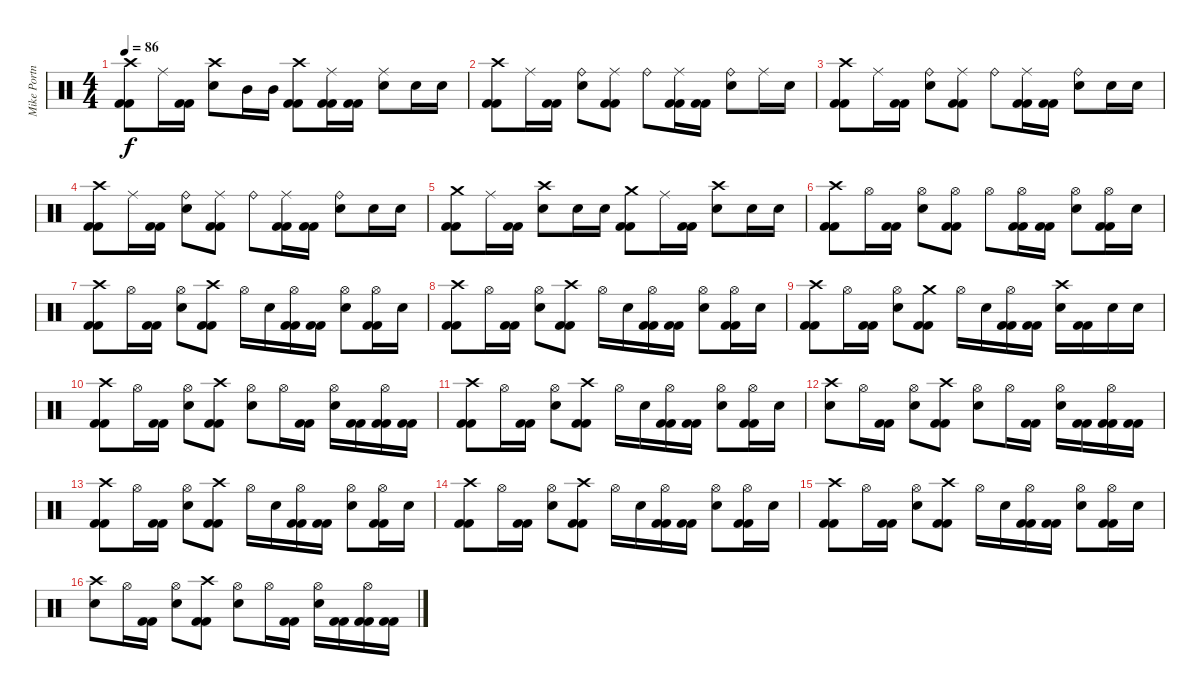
\track ("Mike Portnoy - Drum" "Mike Portn") {instrument percussion}
\staff {score}
\articulation defaults
\ts (4 4)
\tempo 86
\clef neutral
\ks c
("Crash high (hit)" "Kick (hit) 2" "Kick (hit) 2").8{dy f} "Ride (middle)".16 ("Kick (hit) 2" "Kick (hit) 2").16 ("Crash high (hit)" "Snare (hit) 2").8 "Mid Tom (hit)".16 "Mid Tom (hit)".16 ("Crash high (hit)" "Kick (hit) 2" "Kick (hit) 2").8 ("Ride (middle)" "Kick (hit) 2" "Kick (hit) 2").16 ("Kick (hit) 2" "Kick (hit) 2").16 ("Ride (middle)" "Snare (hit) 2").8 "Snare (hit) 2".16 "Snare (hit) 2".16 |
("Crash high (hit)" "Kick (hit) 2" "Kick (hit) 2").8 "Ride (middle)".16 ("Kick (hit) 2" "Kick (hit) 2").16 ("Ride (bell)" "Snare (hit) 2").8 ("Ride (middle)" "Kick (hit) 2" "Kick (hit) 2").8 "Ride (bell)".8 ("Ride (middle)" "Kick (hit) 2" "Kick (hit) 2").16 ("Kick (hit) 2" "Kick (hit) 2").16 ("Ride (bell)" "Snare (hit) 2").8 "Ride (middle)".16 "Snare (hit) 2".16 |
("Crash high (hit)" "Kick (hit) 2" "Kick (hit) 2").8 "Ride (middle)".16 ("Kick (hit) 2" "Kick (hit) 2").16 ("Ride (bell)" "Snare (hit) 2").8 ("Ride (middle)" "Kick (hit) 2" "Kick (hit) 2").8 "Ride (bell)".8 ("Ride (middle)" "Kick (hit) 2" "Kick (hit) 2").16 ("Kick (hit) 2" "Kick (hit) 2").16 ("Ride (bell)" "Snare (hit) 2").8 "Snare (hit) 2".16 "Snare (hit) 2".16 |
("Crash high (hit)" "Kick (hit) 2" "Kick (hit) 2").8 "Ride (middle)".16 ("Kick (hit) 2" "Kick (hit) 2").16 ("Ride (bell)" "Snare (hit) 2").8 ("Ride (middle)" "Kick (hit) 2" "Kick (hit) 2").8 "Ride (bell)".8 ("Ride (middle)" "Kick (hit) 2" "Kick (hit) 2").16 ("Kick (hit) 2" "Kick (hit) 2").16 ("Ride (bell)" "Snare (hit) 2").8 "Snare (hit) 2".16 "Snare (hit) 2".16 |
("Crash medium (hit)" "Kick (hit) 2" "Kick (hit) 2").8 "Ride (middle)".16 ("Kick (hit) 2" "Kick (hit) 2").16 ("Crash high (hit)" "Snare (hit) 2").8 "Snare (hit) 2".16 "Snare (hit) 2".16 ("Crash medium (hit)" "Kick (hit) 2" "Kick (hit) 2").8 "Ride (middle)".16 ("Kick (hit) 2" "Kick (hit) 2").16 ("Crash high (hit)" "Snare (hit) 2").8 "Snare (hit) 2".16 "Snare (hit) 2".16 |
("Crash high (hit)" "Kick (hit) 2" "Kick (hit) 2").8 "Hi-Hat (open)".16 ("Kick (hit) 2" "Kick (hit) 2").16 ("Hi-Hat (open)" "Snare (hit) 2").8 ("Hi-Hat (open)" "Kick (hit) 2" "Kick (hit) 2").8 "Hi-Hat (open)".8 ("Hi-Hat (open)" "Kick (hit) 2" "Kick (hit) 2").16 ("Kick (hit) 2" "Kick (hit) 2").16 ("Hi-Hat (open)" "Snare (hit) 2").8 ("Hi-Hat (open)" "Kick (hit) 2" "Kick (hit) 2").16 "Snare (hit) 2".16 |
("Crash high (hit)" "Kick (hit) 2" "Kick (hit) 2").8 "Hi-Hat (open)".16 ("Kick (hit) 2" "Kick (hit) 2").16 ("Hi-Hat (open)" "Snare (hit) 2").8 ("Crash high (hit)" "Kick (hit) 2" "Kick (hit) 2").8 "Hi-Hat (open)".16 "Snare (hit) 2".16 ("Hi-Hat (open)" "Kick (hit) 2" "Kick (hit) 2").16 ("Kick (hit) 2" "Kick (hit) 2").16 ("Hi-Hat (open)" "Snare (hit) 2").8 ("Hi-Hat (open)" "Kick (hit) 2" "Kick (hit) 2").16 "Snare (hit) 2".16 |
("Crash high (hit)" "Kick (hit) 2" "Kick (hit) 2").8 "Hi-Hat (open)".16 ("Kick (hit) 2" "Kick (hit) 2").16 ("Hi-Hat (open)" "Snare (hit) 2").8 ("Crash high (hit)" "Kick (hit) 2" "Kick (hit) 2").8 "Hi-Hat (open)".16 "Snare (hit) 2".16 ("Hi-Hat (open)" "Kick (hit) 2" "Kick (hit) 2").16 ("Kick (hit) 2" "Kick (hit) 2").16 ("Hi-Hat (open)" "Snare (hit) 2").8 ("Hi-Hat (open)" "Kick (hit) 2" "Kick (hit) 2").16 "Snare (hit) 2".16 |
("Crash high (hit)" "Kick (hit) 2" "Kick (hit) 2").8 "Hi-Hat (open)".16 ("Kick (hit) 2" "Kick (hit) 2").16 ("Hi-Hat (open)" "Snare (hit) 2").8 ("Crash medium (hit)" "Kick (hit) 2" "Kick (hit) 2").8 "Hi-Hat (open)".16 "Snare (hit) 2".16 ("Hi-Hat (open)" "Kick (hit) 2" "Kick (hit) 2").16 ("Kick (hit) 2" "Kick (hit) 2").16 ("Crash high (hit)" "Snare (hit) 2").16 ("Kick (hit) 2" "Kick (hit) 2").16 "Snare (hit) 2".16 "Snare (hit) 2".16 |
("Crash high (hit)" "Kick (hit) 2" "Kick (hit) 2").8 "Hi-Hat (open)".16 ("Kick (hit) 2" "Kick (hit) 2").16 ("Hi-Hat (open)" "Snare (hit) 2").8 ("Crash high (hit)" "Kick (hit) 2" "Kick (hit) 2").8 ("Hi-Hat (open)" "Snare (hit) 2").8 "Hi-Hat (open)".16 ("Kick (hit) 2" "Kick (hit) 2").16 ("Hi-Hat (open)" "Snare (hit) 2").16 ("Kick (hit) 2" "Kick (hit) 2").16 ("Hi-Hat (open)" "Kick (hit) 2" "Kick (hit) 2").16 ("Kick (hit) 2" "Kick (hit) 2").16 |
("Crash high (hit)" "Kick (hit) 2" "Kick (hit) 2").8 "Hi-Hat (open)".16 ("Kick (hit) 2" "Kick (hit) 2").16 ("Hi-Hat (open)" "Snare (hit) 2").8 ("Crash high (hit)" "Kick (hit) 2" "Kick (hit) 2").8 "Hi-Hat (open)".16 "Snare (hit) 2".16 ("Hi-Hat (open)" "Kick (hit) 2" "Kick (hit) 2").16 ("Kick (hit) 2" "Kick (hit) 2").16 ("Hi-Hat (open)" "Snare (hit) 2").8 ("Hi-Hat (open)" "Kick (hit) 2" "Kick (hit) 2").16 "Snare (hit) 2".16 |
("Crash high (hit)" "Snare (hit) 2").8 "Hi-Hat (open)".16 ("Kick (hit) 2" "Kick (hit) 2").16 ("Hi-Hat (open)" "Snare (hit) 2").8 ("Crash high (hit)" "Kick (hit) 2" "Kick (hit) 2").8 ("Hi-Hat (open)" "Snare (hit) 2").8 "Hi-Hat (open)".16 ("Kick (hit) 2" "Kick (hit) 2").16 ("Hi-Hat (open)" "Snare (hit) 2").16 ("Kick (hit) 2" "Kick (hit) 2").16 ("Hi-Hat (open)" "Kick (hit) 2" "Kick (hit) 2").16 ("Kick (hit) 2" "Kick (hit) 2").16 |
("Crash high (hit)" "Kick (hit) 2" "Kick (hit) 2").8 "Hi-Hat (open)".16 ("Kick (hit) 2" "Kick (hit) 2").16 ("Hi-Hat (open)" "Snare (hit) 2").8 ("Crash high (hit)" "Kick (hit) 2" "Kick (hit) 2").8 "Hi-Hat (open)".16 "Snare (hit) 2".16 ("Hi-Hat (open)" "Kick (hit) 2" "Kick (hit) 2").16 ("Kick (hit) 2" "Kick (hit) 2").16 ("Hi-Hat (open)" "Snare (hit) 2").8 ("Hi-Hat (open)" "Kick (hit) 2" "Kick (hit) 2").16 "Snare (hit) 2".16 |
("Crash high (hit)" "Kick (hit) 2" "Kick (hit) 2").8 "Hi-Hat (open)".16 ("Kick (hit) 2" "Kick (hit) 2").16 ("Hi-Hat (open)" "Snare (hit) 2").8 ("Crash high (hit)" "Kick (hit) 2" "Kick (hit) 2").8 "Hi-Hat (open)".16 "Snare (hit) 2".16 ("Hi-Hat (open)" "Kick (hit) 2" "Kick (hit) 2").16 ("Kick (hit) 2" "Kick (hit) 2").16 ("Hi-Hat (open)" "Snare (hit) 2").8 ("Hi-Hat (open)" "Kick (hit) 2" "Kick (hit) 2").16 "Snare (hit) 2".16 |
("Crash high (hit)" "Kick (hit) 2" "Kick (hit) 2").8 "Hi-Hat (open)".16 ("Kick (hit) 2" "Kick (hit) 2").16 ("Hi-Hat (open)" "Snare (hit) 2").8 ("Crash high (hit)" "Kick (hit) 2" "Kick (hit) 2").8 "Hi-Hat (open)".16 "Snare (hit) 2".16 ("Hi-Hat (open)" "Kick (hit) 2" "Kick (hit) 2").16 ("Kick (hit) 2" "Kick (hit) 2").16 ("Hi-Hat (open)" "Snare (hit) 2").8 ("Hi-Hat (open)" "Kick (hit) 2" "Kick (hit) 2").16 "Snare (hit) 2".16 |
("Crash high (hit)" "Snare (hit) 2").8 "Hi-Hat (open)".16 ("Kick (hit) 2" "Kick (hit) 2").16 ("Hi-Hat (open)" "Snare (hit) 2").8 ("Crash high (hit)" "Kick (hit) 2" "Kick (hit) 2").8 ("Hi-Hat (open)" "Snare (hit) 2").8 "Hi-Hat (open)".16 ("Kick (hit) 2" "Kick (hit) 2").16 ("Hi-Hat (open)" "Snare (hit) 2").16 ("Kick (hit) 2" "Kick (hit) 2").16 ("Hi-Hat (open)" "Kick (hit) 2" "Kick (hit) 2").16 ("Kick (hit) 2" "Kick (hit) 2").16
